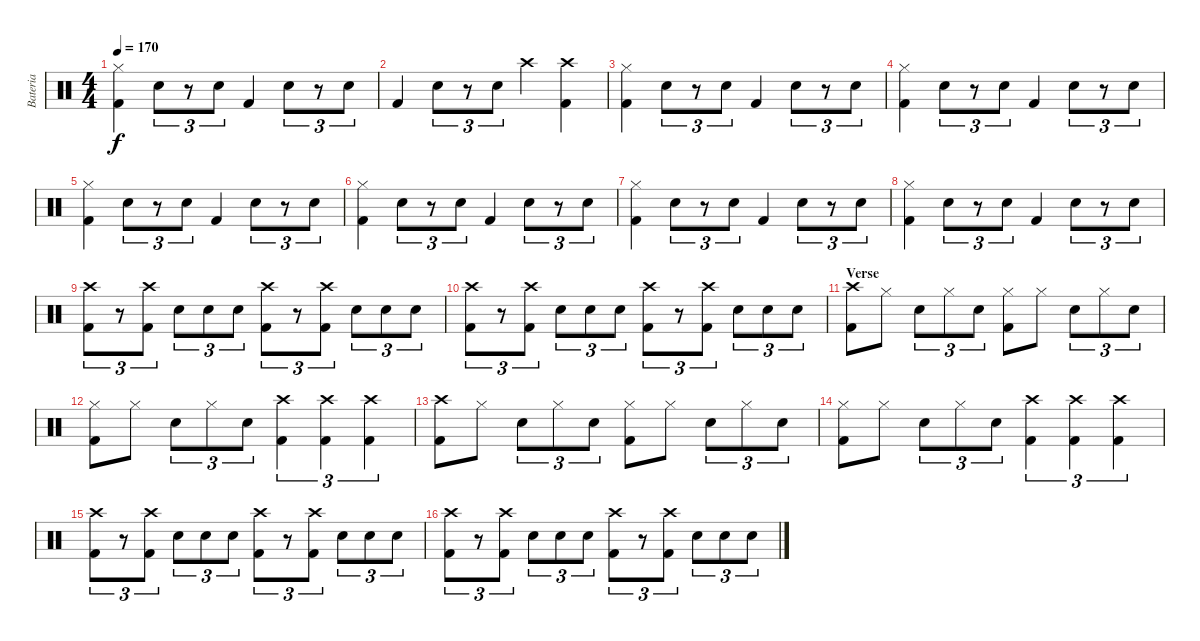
\track ("Bateria" "Bateria") {instrument percussion}
\staff {score}
\articulation defaults
\ts (4 4)
\tempo 170
\clef neutral
\ks c
("Hi-Hat (closed)" "Kick (hit) 2").4{dy f} "Snare (hit) 2".8{tu (3 2)} r.8{tu (3 2)} "Snare (hit) 2".8{tu (3 2)} "Kick (hit) 2".4 "Snare (hit) 2".8{tu (3 2)} r.8{tu (3 2)} "Snare (hit) 2".8{tu (3 2)} |
"Kick (hit) 2".4 "Snare (hit) 2".8{tu (3 2)} r.8{tu (3 2)} "Snare (hit) 2".8{tu (3 2)} "Crash high (hit)".4 ("Crash high (hit)" "Kick (hit) 2").4 |
("Hi-Hat (closed)" "Kick (hit) 2").4 "Snare (hit) 2".8{tu (3 2)} r.8{tu (3 2)} "Snare (hit) 2".8{tu (3 2)} "Kick (hit) 2".4 "Snare (hit) 2".8{tu (3 2)} r.8{tu (3 2)} "Snare (hit) 2".8{tu (3 2)} |
("Hi-Hat (closed)" "Kick (hit) 2").4 "Snare (hit) 2".8{tu (3 2)} r.8{tu (3 2)} "Snare (hit) 2".8{tu (3 2)} "Kick (hit) 2".4 "Snare (hit) 2".8{tu (3 2)} r.8{tu (3 2)} "Snare (hit) 2".8{tu (3 2)} |
("Hi-Hat (closed)" "Kick (hit) 2").4 "Snare (hit) 2".8{tu (3 2)} r.8{tu (3 2)} "Snare (hit) 2".8{tu (3 2)} "Kick (hit) 2".4 "Snare (hit) 2".8{tu (3 2)} r.8{tu (3 2)} "Snare (hit) 2".8{tu (3 2)} |
("Hi-Hat (closed)" "Kick (hit) 2").4 "Snare (hit) 2".8{tu (3 2)} r.8{tu (3 2)} "Snare (hit) 2".8{tu (3 2)} "Kick (hit) 2".4 "Snare (hit) 2".8{tu (3 2)} r.8{tu (3 2)} "Snare (hit) 2".8{tu (3 2)} |
("Hi-Hat (closed)" "Kick (hit) 2").4 "Snare (hit) 2".8{tu (3 2)} r.8{tu (3 2)} "Snare (hit) 2".8{tu (3 2)} "Kick (hit) 2".4 "Snare (hit) 2".8{tu (3 2)} r.8{tu (3 2)} "Snare (hit) 2".8{tu (3 2)} |
("Hi-Hat (closed)" "Kick (hit) 2").4 "Snare (hit) 2".8{tu (3 2)} r.8{tu (3 2)} "Snare (hit) 2".8{tu (3 2)} "Kick (hit) 2".4 "Snare (hit) 2".8{tu (3 2)} r.8{tu (3 2)} "Snare (hit) 2".8{tu (3 2)} |
("Crash high (hit)" "Kick (hit) 2").8{tu (3 2)} r.8{tu (3 2)} ("Crash high (hit)" "Kick (hit) 2").8{tu (3 2)} "Snare (hit) 2".8{tu (3 2)} "Snare (hit) 2".8{tu (3 2)} "Snare (hit) 2".8{tu (3 2)} ("Crash high (hit)" "Kick (hit) 2").8{tu (3 2)} r.8{tu (3 2)} ("Crash high (hit)" "Kick (hit) 2").8{tu (3 2)} "Snare (hit) 2".8{tu (3 2)} "Snare (hit) 2".8{tu (3 2)} "Snare (hit) 2".8{tu (3 2)} |
("Crash high (hit)" "Kick (hit) 2").8{tu (3 2)} r.8{tu (3 2)} ("Crash high (hit)" "Kick (hit) 2").8{tu (3 2)} "Snare (hit) 2".8{tu (3 2)} "Snare (hit) 2".8{tu (3 2)} "Snare (hit) 2".8{tu (3 2)} ("Crash high (hit)" "Kick (hit) 2").8{tu (3 2)} r.8{tu (3 2)} ("Crash high (hit)" "Kick (hit) 2").8{tu (3 2)} "Snare (hit) 2".8{tu (3 2)} "Snare (hit) 2".8{tu (3 2)} "Snare (hit) 2".8{tu (3 2)} |
\section ("" "Verse")
("Crash high (hit)" "Kick (hit) 2").8 "Hi-Hat (closed)".8 "Snare (hit) 2".8{tu (3 2)} "Hi-Hat (closed)".8{tu (3 2)} "Snare (hit) 2".8{tu (3 2)} ("Hi-Hat (closed)" "Kick (hit) 2").8 "Hi-Hat (closed)".8 "Snare (hit) 2".8{tu (3 2)} "Hi-Hat (closed)".8{tu (3 2)} "Snare (hit) 2".8{tu (3 2)} |
("Hi-Hat (closed)" "Kick (hit) 2").8 "Hi-Hat (closed)".8 "Snare (hit) 2".8{tu (3 2)} "Hi-Hat (closed)".8{tu (3 2)} "Snare (hit) 2".8{tu (3 2)} ("Crash high (hit)" "Kick (hit) 2").4{tu (3 2)} ("Crash high (hit)" "Kick (hit) 2").4{tu (3 2)} ("Crash high (hit)" "Kick (hit) 2").4{tu (3 2)} |
("Crash high (hit)" "Kick (hit) 2").8 "Hi-Hat (closed)".8 "Snare (hit) 2".8{tu (3 2)} "Hi-Hat (closed)".8{tu (3 2)} "Snare (hit) 2".8{tu (3 2)} ("Hi-Hat (closed)" "Kick (hit) 2").8 "Hi-Hat (closed)".8 "Snare (hit) 2".8{tu (3 2)} "Hi-Hat (closed)".8{tu (3 2)} "Snare (hit) 2".8{tu (3 2)} |
("Hi-Hat (closed)" "Kick (hit) 2").8 "Hi-Hat (closed)".8 "Snare (hit) 2".8{tu (3 2)} "Hi-Hat (closed)".8{tu (3 2)} "Snare (hit) 2".8{tu (3 2)} ("Crash high (hit)" "Kick (hit) 2").4{tu (3 2)} ("Crash high (hit)" "Kick (hit) 2").4{tu (3 2)} ("Crash high (hit)" "Kick (hit) 2").4{tu (3 2)} |
("Crash high (hit)" "Kick (hit) 2").8{tu (3 2)} r.8{tu (3 2)} ("Crash high (hit)" "Kick (hit) 2").8{tu (3 2)} "Snare (hit) 2".8{tu (3 2)} "Snare (hit) 2".8{tu (3 2)} "Snare (hit) 2".8{tu (3 2)} ("Crash high (hit)" "Kick (hit) 2").8{tu (3 2)} r.8{tu (3 2)} ("Crash high (hit)" "Kick (hit) 2").8{tu (3 2)} "Snare (hit) 2".8{tu (3 2)} "Snare (hit) 2".8{tu (3 2)} "Snare (hit) 2".8{tu (3 2)} |
("Crash high (hit)" "Kick (hit) 2").8{tu (3 2)} r.8{tu (3 2)} ("Crash high (hit)" "Kick (hit) 2").8{tu (3 2)} "Snare (hit) 2".8{tu (3 2)} "Snare (hit) 2".8{tu (3 2)} "Snare (hit) 2".8{tu (3 2)} ("Crash high (hit)" "Kick (hit) 2").8{tu (3 2)} r.8{tu (3 2)} ("Crash high (hit)" "Kick (hit) 2").8{tu (3 2)} "Snare (hit) 2".8{tu (3 2)} "Snare (hit) 2".8{tu (3 2)} "Snare (hit) 2".8{tu (3 2)}
